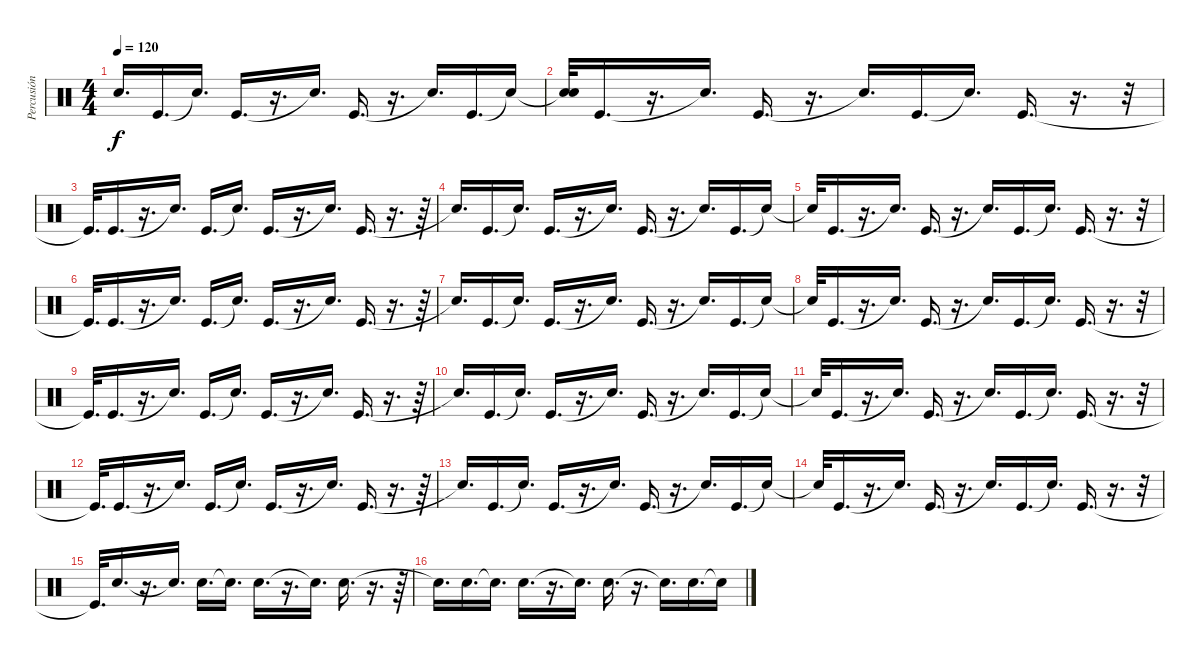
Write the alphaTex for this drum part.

\track ("Percusión" "Percusión") {instrument percussion}
\staff {score}
\articulation defaults
\ts (4 4)
\tempo 120
\clef neutral
\ks c "Snare (hit)"{t}.16{d dy f} "Kick (hit)".16{d} "Snare (hit)"{t}.16{d} "Kick (hit)".16{d}
r.16{d} "Snare (hit)"{t}.16{d} "Kick (hit)".16{d} r.16{d} "Snare (hit)"{t}.16{d} "Kick (hit)".16{d} "Snare (hit)"{t}.16 |
("Snare (hit)"{t} "Snare (hit)").32 "Kick (hit)".16{d} r.16{d} "Snare (hit)"{t}.16{d} "Kick (hit)".16{d} r.16{d} "Snare (hit)"{t}.16{d} "Kick (hit)".16{d} "Snare (hit)"{t}.16{d} "Kick (hit)".16{d} r.16{d} r.32 |
"Kick (hit)"{t}.32{d} "Kick (hit)".16{d} r.16{d} "Snare (hit)"{t}.16{d} "Kick (hit)".16{d} "Snare (hit)"{t}.16{d} "Kick (hit)".16{d} r.16{d} "Snare (hit)"{t}.16{d} "Kick (hit)".16{d} r.16{d} r.64 |
"Snare (hit)"{t}.16{d} "Kick (hit)".16{d} "Snare (hit)"{t}.16{d} "Kick (hit)".16{d} r.16{d} "Snare (hit)"{t}.16{d} "Kick (hit)".16{d} r.16{d} "Snare (hit)"{t}.16{d} "Kick (hit)".16{d} "Snare (hit)"{t}.16 |
"Snare (hit)"{t}.32 "Kick (hit)".16{d} r.16{d} "Snare (hit)"{t}.16{d} "Kick (hit)".16{d} r.16{d} "Snare (hit)"{t}.16{d} "Kick (hit)".16{d} "Snare (hit)"{t}.16{d} "Kick (hit)".16{d} r.16{d} r.32 |
"Kick (hit)"{t}.32{d} "Kick (hit)".16{d} r.16{d} "Snare (hit)"{t}.16{d} "Kick (hit)".16{d} "Snare (hit)"{t}.16{d} "Kick (hit)".16{d} r.16{d} "Snare (hit)"{t}.16{d} "Kick (hit)".16{d} r.16{d} r.64 |
"Snare (hit)"{t}.16{d} "Kick (hit)".16{d} "Snare (hit)"{t}.16{d} "Kick (hit)".16{d} r.16{d} "Snare (hit)"{t}.16{d} "Kick (hit)".16{d} r.16{d} "Snare (hit)"{t}.16{d} "Kick (hit)".16{d} "Snare (hit)"{t}.16 |
"Snare (hit)"{t}.32 "Kick (hit)".16{d} r.16{d} "Snare (hit)"{t}.16{d} "Kick (hit)".16{d} r.16{d} "Snare (hit)"{t}.16{d} "Kick (hit)".16{d} "Snare (hit)"{t}.16{d} "Kick (hit)".16{d} r.16{d} r.32 |
"Kick (hit)"{t}.32{d} "Kick (hit)".16{d} r.16{d} "Snare (hit)"{t}.16{d} "Kick (hit)".16{d} "Snare (hit)"{t}.16{d} "Kick (hit)".16{d} r.16{d} "Snare (hit)"{t}.16{d} "Kick (hit)".16{d} r.16{d} r.64 |
"Snare (hit)"{t}.16{d} "Kick (hit)".16{d} "Snare (hit)"{t}.16{d} "Kick (hit)".16{d} r.16{d} "Snare (hit)"{t}.16{d} "Kick (hit)".16{d} r.16{d} "Snare (hit)"{t}.16{d} "Kick (hit)".16{d} "Snare (hit)"{t}.16 |
"Snare (hit)"{t}.32 "Kick (hit)".16{d} r.16{d} "Snare (hit)"{t}.16{d} "Kick (hit)".16{d} r.16{d} "Snare (hit)"{t}.16{d} "Kick (hit)".16{d} "Snare (hit)"{t}.16{d} "Kick (hit)".16{d} r.16{d} r.32 |
"Kick (hit)"{t}.32{d} "Kick (hit)".16{d} r.16{d} "Snare (hit)"{t}.16{d} "Kick (hit)".16{d} "Snare (hit)"{t}.16{d} "Kick (hit)".16{d} r.16{d} "Snare (hit)"{t}.16{d} "Kick (hit)".16{d} r.16{d} r.64 |
"Snare (hit)"{t}.16{d} "Kick (hit)".16{d} "Snare (hit)"{t}.16{d} "Kick (hit)".16{d} r.16{d} "Snare (hit)"{t}.16{d} "Kick (hit)".16{d} r.16{d} "Snare (hit)"{t}.16{d} "Kick (hit)".16{d} "Snare (hit)"{t}.16 |
"Snare (hit)"{t}.32 "Kick (hit)".16{d} r.16{d} "Snare (hit)"{t}.16{d} "Kick (hit)".16{d} r.16{d} "Snare (hit)"{t}.16{d} "Kick (hit)".16{d} "Snare (hit)"{t}.16{d} "Kick (hit)".16{d} r.16{d} r.32 |
"Kick (hit)"{t}.32{d} "Electric Snare (hit)".16{d} r.16{d} "Snare (hit)"{t}.16{d} "Electric Snare (hit)".16{d} "Snare (hit)"{t}.16{d} "Electric Snare (hit)".16{d} r.16{d} "Snare (hit)"{t}.16{d} "Electric Snare (hit)".16{d} r.16{d} r.64 |
"Snare (hit)"{t}.16{d} "Electric Snare (hit)".16{d} "Snare (hit)"{t}.16{d} "Electric Snare (hit)".16{d} r.16{d} "Snare (hit)"{t}.16{d} "Electric Snare (hit)".16{d} r.16{d} "Snare (hit)"{t}.16{d} "Electric Snare (hit)".16{d} "Snare (hit)"{t}.16
